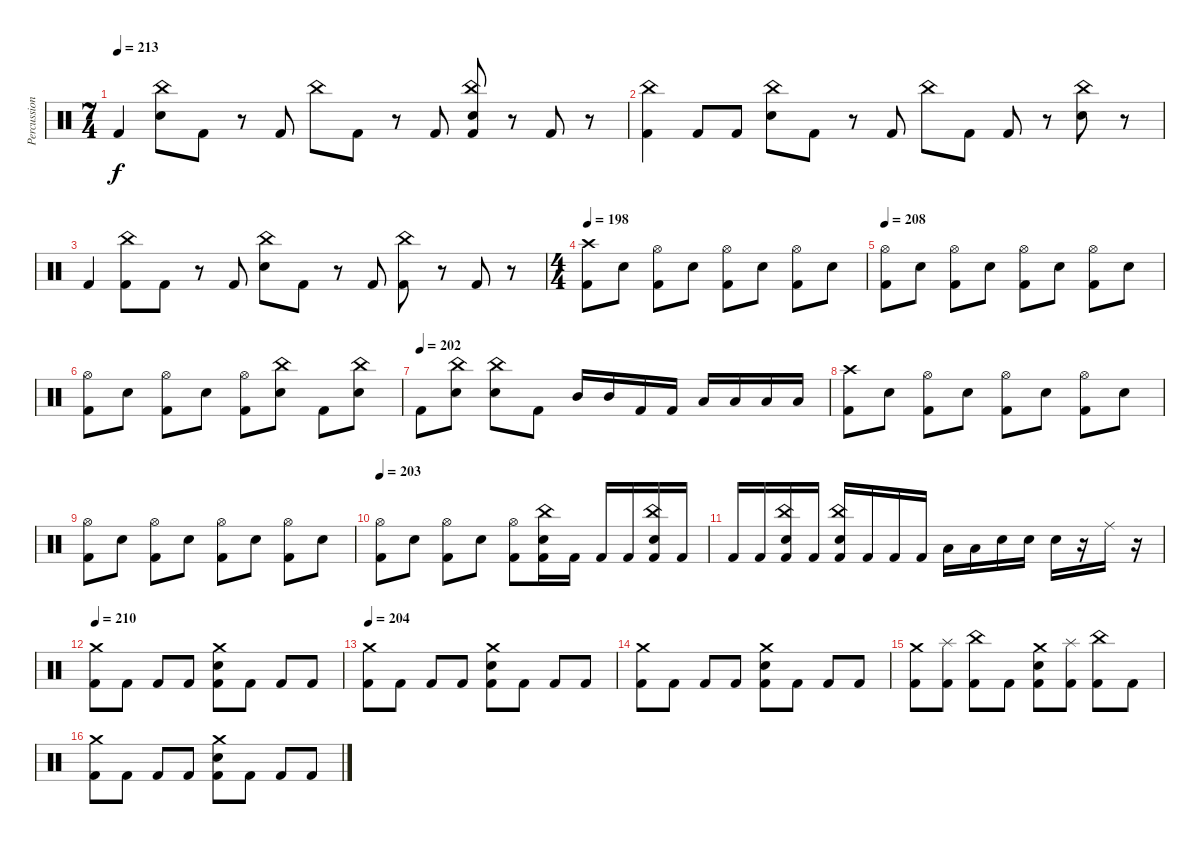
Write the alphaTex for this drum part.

\track ("Percussion" "Percussion") {instrument percussion}
\staff {score}
\articulation defaults
\ts (7 4)
\tempo 213
\clef neutral
\ks c "Kick (hit) 2".4{dy f}
("China (hit)" "Snare (hit) 2").8 "Kick (hit) 2".8 r.8 "Kick (hit) 2".8 "China (hit)".8 "Kick (hit) 2".8 r.8 "Kick (hit) 2".8 ("China (hit)" "Snare (hit) 2" "Kick (hit) 2").8 r.8 "Kick (hit) 2".8 r.8 |
("China (hit)" "Kick (hit) 2").4 "Kick (hit) 2".8 "Kick (hit) 2".8 ("China (hit)" "Snare (hit) 2").8 "Kick (hit) 2".8 r.8 "Kick (hit) 2".8 "China (hit)".8 "Kick (hit) 2".8 "Kick (hit) 2".8 r.8 ("China (hit)" "Snare (hit) 2").8 r.8 |
"Kick (hit) 2".4 ("China (hit)" "Kick (hit) 2").8 "Kick (hit) 2".8 r.8 "Kick (hit) 2".8 ("China (hit)" "Snare (hit) 2").8 "Kick (hit) 2".8 r.8 "Kick (hit) 2".8 ("China (hit)" "Kick (hit) 2").8 r.8 "Kick (hit) 2".8 r.8 |
\ts (4 4)
\tempo 198
("Crash high (hit)" "Kick (hit) 2").8 "Snare (hit) 2".8 ("Hi-Hat (open)" "Kick (hit) 2").8 "Snare (hit) 2".8 ("Hi-Hat (open)" "Kick (hit) 2").8 "Snare (hit) 2".8 ("Hi-Hat (open)" "Kick (hit) 2").8 "Snare (hit) 2".8 |
\tempo 208
("Hi-Hat (open)" "Kick (hit) 2").8 "Snare (hit) 2".8 ("Hi-Hat (open)" "Kick (hit) 2").8 "Snare (hit) 2".8 ("Hi-Hat (open)" "Kick (hit) 2").8 "Snare (hit) 2".8 ("Hi-Hat (open)" "Kick (hit) 2").8 "Snare (hit) 2".8 |
("Hi-Hat (open)" "Kick (hit) 2").8 "Snare (hit) 2".8 ("Hi-Hat (open)" "Kick (hit) 2").8 "Snare (hit) 2".8 ("Hi-Hat (open)" "Kick (hit) 2").8 ("China (hit)" "Snare (hit) 2").8 "Kick (hit) 2".8 ("China (hit)" "Snare (hit) 2").8 |
\tempo (202)
"Kick (hit) 2".8 ("China (hit)" "Snare (hit) 2").8 ("China (hit)" "Snare (hit) 2").8 "Kick (hit) 2".8 "Mid Tom (hit)".16 "Mid Tom (hit)".16 "Kick (hit) 2".16 "Kick (hit) 2".16 "Low Tom (hit)".16 "Low Tom (hit)".16 "Low Tom (hit)".16 "Low Tom (hit)".16 |
("Crash high (hit)" "Kick (hit) 2").8 "Snare (hit) 2".8 ("Hi-Hat (open)" "Kick (hit) 2").8 "Snare (hit) 2".8 ("Hi-Hat (open)" "Kick (hit) 2").8 "Snare (hit) 2".8 ("Hi-Hat (open)" "Kick (hit) 2").8 "Snare (hit) 2".8 |
("Hi-Hat (open)" "Kick (hit) 2").8 "Snare (hit) 2".8 ("Hi-Hat (open)" "Kick (hit) 2").8 "Snare (hit) 2".8 ("Hi-Hat (open)" "Kick (hit) 2").8 "Snare (hit) 2".8 ("Hi-Hat (open)" "Kick (hit) 2").8 "Snare (hit) 2".8 |
\tempo 203
("Hi-Hat (open)" "Kick (hit) 2").8 "Snare (hit) 2".8 ("Hi-Hat (open)" "Kick (hit) 2").8 "Snare (hit) 2".8 ("Hi-Hat (open)" "Kick (hit) 2").8 ("China (hit)" "Snare (hit) 2" "Kick (hit) 2").16 "Kick (hit) 2".16 "Kick (hit) 2".16 "Kick (hit) 2".16 ("China (hit)" "Snare (hit) 2" "Kick (hit) 2").16 "Kick (hit) 2".16 |
"Kick (hit) 2".16 "Kick (hit) 2".16 ("China (hit)" "Snare (hit) 2" "Kick (hit) 2").16 "Kick (hit) 2".16 ("China (hit)" "Snare (hit) 2" "Kick (hit) 2").16 "Kick (hit) 2".16 "Kick (hit) 2".16 "Kick (hit) 2".16 "Low Tom (hit)".16 "Low Tom (hit)".16 "Snare (hit) 2".16 "Snare (hit) 2".16 "Snare (hit) 2".16 r.16 "Ride (middle)".16 r.16 |
\tempo 210
("Crash medium (hit)" "Kick (hit) 2").8 "Kick (hit) 2".8 "Kick (hit) 2".8 "Kick (hit) 2".8 ("Crash medium (hit)" "Snare (hit) 2" "Kick (hit) 2").8 "Kick (hit) 2".8 "Kick (hit) 2".8 "Kick (hit) 2".8 |
\tempo 204
("Crash medium (hit)" "Kick (hit) 2").8 "Kick (hit) 2".8 "Kick (hit) 2".8 "Kick (hit) 2".8 ("Crash medium (hit)" "Snare (hit) 2" "Kick (hit) 2").8 "Kick (hit) 2".8 "Kick (hit) 2".8 "Kick (hit) 2".8 |
("Crash medium (hit)" "Kick (hit) 2").8 "Kick (hit) 2".8 "Kick (hit) 2".8 "Kick (hit) 2".8 ("Crash medium (hit)" "Snare (hit) 2" "Kick (hit) 2").8 "Kick (hit) 2".8 "Kick (hit) 2".8 "Kick (hit) 2".8 |
("Crash medium (hit)" "Kick (hit) 2").8 ("Splash (hit)" "Kick (hit) 2").8 ("China (hit)" "Kick (hit) 2").8 "Kick (hit) 2".8 ("Crash medium (hit)" "Snare (hit) 2" "Kick (hit) 2").8 ("Splash (hit)" "Kick (hit) 2").8 ("China (hit)" "Kick (hit) 2").8 "Kick (hit) 2".8 |
("Crash medium (hit)" "Kick (hit) 2").8 "Kick (hit) 2".8 "Kick (hit) 2".8 "Kick (hit) 2".8 ("Crash medium (hit)" "Snare (hit) 2" "Kick (hit) 2").8 "Kick (hit) 2".8 "Kick (hit) 2".8 "Kick (hit) 2".8
